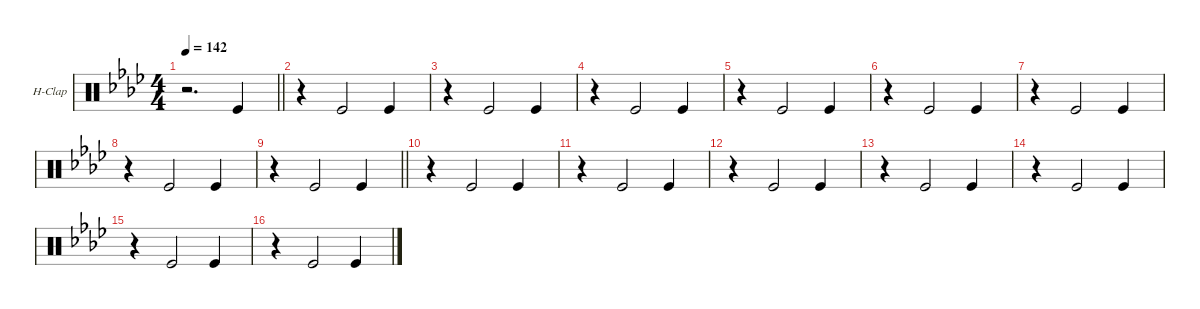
\defaultSystemsLayout 4
\hideDynamics
\bracketExtendMode groupsimilarinstruments
\firstSystemTrackNameOrientation horizontal
\otherSystemsTrackNameOrientation horizontal
\track ("Hand Clap" "H-Clap") {multiBarRest instrument percussion}
\staff {score}
\articulation defaults
\ts (4 4)
\tempo 142
\clef neutral
\barLineRight lightlight
\ks ab
r.2{d dy fff} "Kick (hit)".4 |
r.4 "Kick (hit)".2 "Kick (hit)".4 |
r.4 "Kick (hit)".2 "Kick (hit)".4 |
r.4 "Kick (hit)".2 "Kick (hit)".4 |
r.4 "Kick (hit)".2 "Kick (hit)".4 |
r.4 "Kick (hit)".2 "Kick (hit)".4 |
r.4 "Kick (hit)".2 "Kick (hit)".4 |
r.4 "Kick (hit)".2 "Kick (hit)".4 |
\barLineRight lightlight
r.4 "Kick (hit)".2 "Kick (hit)".4 |
r.4 "Kick (hit)".2 "Kick (hit)".4 |
r.4 "Kick (hit)".2 "Kick (hit)".4 |
r.4 "Kick (hit)".2 "Kick (hit)".4 |
r.4 "Kick (hit)".2 "Kick (hit)".4 |
r.4 "Kick (hit)".2 "Kick (hit)".4 |
r.4 "Kick (hit)".2 "Kick (hit)".4 |
r.4 "Kick (hit)".2 "Kick (hit)".4
